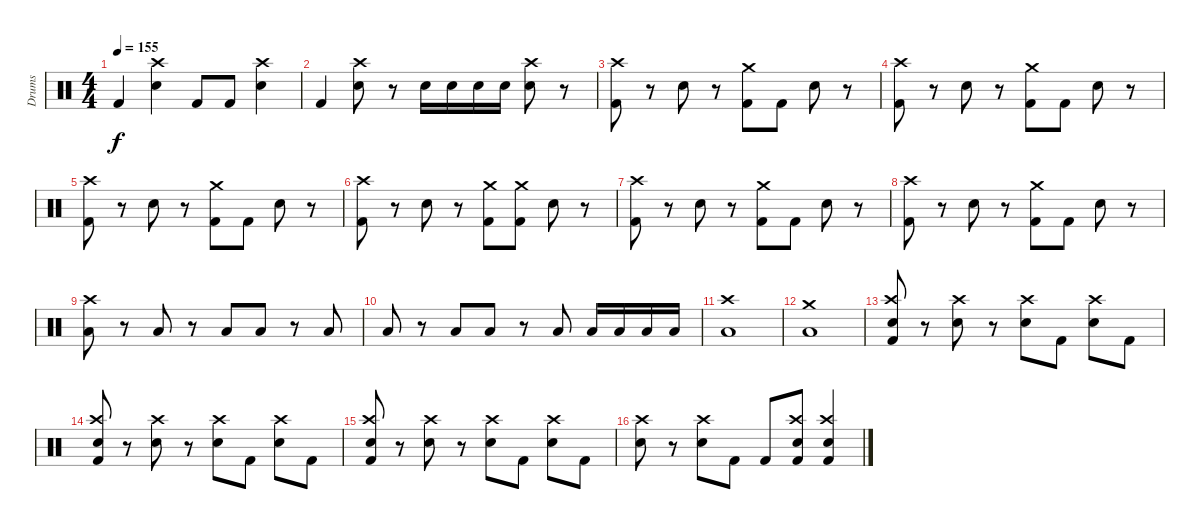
\track ("Drums" "Drums") {instrument percussion}
\staff {score}
\articulation defaults
\ts (4 4)
\tempo 155
\clef neutral
\ks c "Kick (hit) 2".4{dy f}
("Crash high (hit)" "Snare (hit) 2").4 "Kick (hit) 2".8 "Kick (hit) 2".8 ("Crash high (hit)" "Snare (hit) 2").4 |
"Kick (hit) 2".4 ("Crash high (hit)" "Snare (hit) 2").8 r.8 "Snare (hit) 2".16 "Snare (hit) 2".16 "Snare (hit) 2".16 "Snare (hit) 2".16 ("Crash high (hit)" "Snare (hit) 2").8 r.8 |
("Crash high (hit)" "Kick (hit) 2").8 r.8 "Snare (hit) 2".8 r.8 ("Crash medium (hit)" "Kick (hit) 2").8 "Kick (hit) 2".8 "Snare (hit) 2".8 r.8 |
("Crash high (hit)" "Kick (hit) 2").8 r.8 "Snare (hit) 2".8 r.8 ("Crash medium (hit)" "Kick (hit) 2").8 "Kick (hit) 2".8 "Snare (hit) 2".8 r.8 |
("Crash high (hit)" "Kick (hit) 2").8 r.8 "Snare (hit) 2".8 r.8 ("Crash medium (hit)" "Kick (hit) 2").8 "Kick (hit) 2".8 "Snare (hit) 2".8 r.8 |
("Crash high (hit)" "Kick (hit) 2").8 r.8 "Snare (hit) 2".8 r.8 ("Crash medium (hit)" "Kick (hit) 2").8 ("Crash medium (hit)" "Kick (hit) 2").8 "Snare (hit) 2".8 r.8 |
("Crash high (hit)" "Kick (hit) 2").8 r.8 "Snare (hit) 2".8 r.8 ("Crash medium (hit)" "Kick (hit) 2").8 "Kick (hit) 2".8 "Snare (hit) 2".8 r.8 |
("Crash high (hit)" "Kick (hit) 2").8 r.8 "Snare (hit) 2".8 r.8 ("Crash medium (hit)" "Kick (hit) 2").8 "Kick (hit) 2".8 "Snare (hit) 2".8 r.8 |
("Crash high (hit)" "Low Floor Tom (hit)").8 r.8 "Low Tom (hit)".8 r.8 "Low Floor Tom (hit)".8 "Low Tom (hit)".8 r.8 "Low Floor Tom (hit)".8 |
"Low Tom (hit)".8 r.8 "Low Floor Tom (hit)".8 "Low Tom (hit)".8 r.8 "Low Tom (hit)".8 "Low Floor Tom (hit)".16 "Low Floor Tom (hit)".16 "Low Floor Tom (hit)".16 "Low Floor Tom (hit)".16 |
("Crash high (hit)" "Low Tom (hit)").1 |
("Crash medium (hit)" "Low Tom (hit)").1 |
("Crash high (hit)" "Snare (hit) 2" "Kick (hit) 2").8 r.8 ("Crash high (hit)" "Snare (hit) 2").8 r.8 ("Crash high (hit)" "Snare (hit) 2").8 "Kick (hit) 2".8 ("Crash high (hit)" "Snare (hit) 2").8 "Kick (hit) 2".8 |
("Crash high (hit)" "Snare (hit) 2" "Kick (hit) 2").8 r.8 ("Crash high (hit)" "Snare (hit) 2").8 r.8 ("Crash high (hit)" "Snare (hit) 2").8 "Kick (hit) 2".8 ("Crash high (hit)" "Snare (hit) 2").8 "Kick (hit) 2".8 |
("Crash high (hit)" "Snare (hit) 2" "Kick (hit) 2").8 r.8 ("Crash high (hit)" "Snare (hit) 2").8 r.8 ("Crash high (hit)" "Snare (hit) 2").8 "Kick (hit) 2".8 ("Crash high (hit)" "Snare (hit) 2").8 "Kick (hit) 2".8 |
("Snare (hit) 2" "Crash high (hit)").8 r.8 ("Snare (hit) 2" "Crash high (hit)").8 "Kick (hit) 2".8 "Kick (hit) 2".8 ("Crash high (hit)" "Snare (hit) 2" "Kick (hit) 2").8 ("Crash high (hit)" "Snare (hit) 2" "Kick (hit) 2").4
